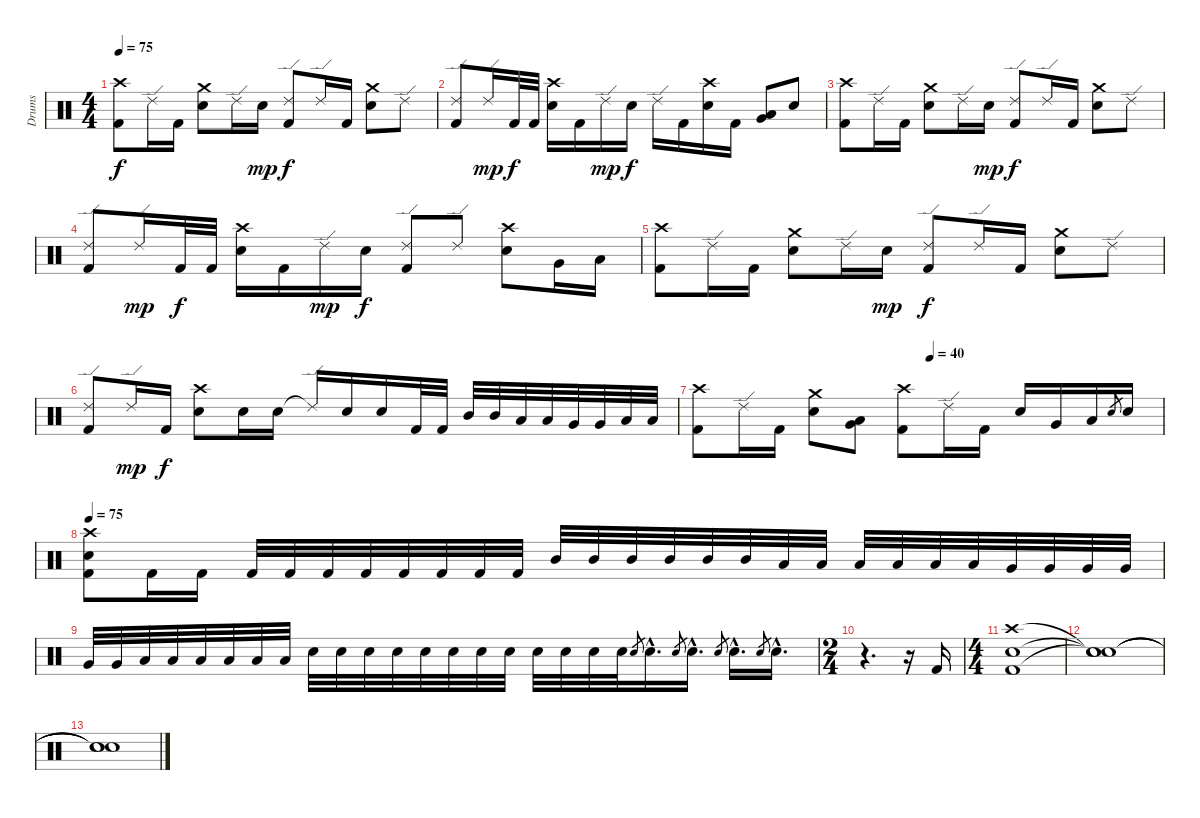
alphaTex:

\track ("Drums" "Drums") {instrument percussion}
\staff {score}
\articulation defaults
\ts (4 4)
\tempo 75
\clef neutral
\ks c
("Crash high (hit)" "Kick (hit) 2").8{dy f} "Ride (edge) 2".16 "Kick (hit) 2".16 ("Crash medium (hit)" "Electric Snare (hit)").8 "Ride (edge) 2".16 "Electric Snare (hit)"{tr (40 32)}.16{dy mp} ("Ride (edge) 2" "Kick (hit) 2").8{dy f} "Ride (edge) 2".16 "Kick (hit) 2".16 ("Crash medium (hit)" "Electric Snare (hit)").8 "Ride (edge) 2".8 |
("Ride (edge) 2" "Kick (hit) 2").8 "Ride (edge) 2".16{dy mp} "Kick (hit) 2".32{dy f} "Kick (hit) 2".32 ("Crash high (hit)" "Electric Snare (hit)").16 "Kick (hit) 2".16 "Ride (edge) 2".16{dy mp} "Electric Snare (hit)".16{dy f} "Ride (edge) 2".16 "Kick (hit) 2".16 ("Crash high (hit)" "Electric Snare (hit)").16 "Kick (hit) 2".16 ("Low Tom (hit)" "Very Low Tom (hit)").8 "Electric Snare (hit)".8 |
("Crash high (hit)" "Kick (hit) 2").8 "Ride (edge) 2".16 "Kick (hit) 2".16 ("Crash medium (hit)" "Electric Snare (hit)").8 "Ride (edge) 2".16 "Electric Snare (hit)"{tr (40 32)}.16{dy mp} ("Ride (edge) 2" "Kick (hit) 2").8{dy f} "Ride (edge) 2".16 "Kick (hit) 2".16 ("Crash medium (hit)" "Electric Snare (hit)").8 "Ride (edge) 2".8 |
("Ride (edge) 2" "Kick (hit) 2").8 "Ride (edge) 2".16{dy mp} "Kick (hit) 2".32{dy f} "Kick (hit) 2".32 ("Crash high (hit)" "Electric Snare (hit)").16 "Kick (hit) 2".16 "Ride (edge) 2".16{dy mp} "Electric Snare (hit)".16{dy f} ("Ride (edge) 2" "Kick (hit) 2").8 "Ride (edge) 2".8 ("Crash high (hit)" "Electric Snare (hit)").8 "Very Low Tom (hit)".16 "Low Floor Tom (hit)".16 |
("Crash high (hit)" "Kick (hit) 2").8 "Ride (edge) 2".16 "Kick (hit) 2".16 ("Crash medium (hit)" "Electric Snare (hit)").8 "Ride (edge) 2".16 "Electric Snare (hit)"{tr (40 32)}.16{dy mp} ("Ride (edge) 2" "Kick (hit) 2").8{dy f} "Ride (edge) 2".16 "Kick (hit) 2".16 ("Crash medium (hit)" "Electric Snare (hit)").8 "Ride (edge) 2".8 |
("Ride (edge) 2" "Kick (hit) 2").8 "Ride (edge) 2".16{dy mp} "Kick (hit) 2".16{dy f} ("Crash high (hit)" "Electric Snare (hit)").8 "Electric Snare (hit)".16 "Electric Snare (hit)".16 "Ride (edge) 2"{t}.16 "Electric Snare (hit)".16 "Electric Snare (hit)".16 "Kick (hit) 2".32 "Kick (hit) 2".32 "Mid Tom (hit)".32 "Mid Tom (hit)".32 "Low Tom (hit)".32 "Low Tom (hit)".32 "Very Low Tom (hit)".32 "Very Low Tom (hit)".32 "Low Floor Tom (hit)".32 "Low Floor Tom (hit)".32 |
\tempo (40 0.5)
("Crash high (hit)" "Kick (hit) 2").8 "Ride (edge) 2".16 "Kick (hit) 2".16 ("Crash medium (hit)" "Electric Snare (hit)").8 ("Very Low Tom (hit)" "Low Tom (hit)").8 ("Crash high (hit)" "Kick (hit) 2").8 "Ride (edge) 2".16 "Kick (hit) 2".16 "Electric Snare (hit)".16 "Very Low Tom (hit)".16 "Low Floor Tom (hit)".16 "Electric Snare (hit)".8{gr} "Electric Snare (hit)".16 |
\tempo 75
("Crash high (hit)" "Electric Snare (hit)" "Kick (hit) 2").8 "Kick (hit) 2".16 "Kick (hit) 2".16 "Kick (hit) 2".32 "Kick (hit) 2".32 "Kick (hit) 2".32 "Kick (hit) 2".32 "Kick (hit) 2".32 "Kick (hit) 2".32 "Kick (hit) 2".32 "Kick (hit) 2".32 "Mid Tom (hit)".32 "Mid Tom (hit)".32 "Mid Tom (hit)".32 "Mid Tom (hit)".32 "Mid Tom (hit)".32 "Mid Tom (hit)".32 "Low Tom (hit)".32 "Low Tom (hit)".32 "Low Tom (hit)".32 "Low Tom (hit)".32 "Low Tom (hit)".32 "Low Tom (hit)".32 "Very Low Tom (hit)".32 "Very Low Tom (hit)".32 "Very Low Tom (hit)".32 "Very Low Tom (hit)".32 |
"Very Low Tom (hit)".32 "Very Low Tom (hit)".32 "Low Floor Tom (hit)".32 "Low Floor Tom (hit)".32 "Low Floor Tom (hit)".32 "Low Floor Tom (hit)".32 "Low Floor Tom (hit)".32 "Low Floor Tom (hit)".32 "Electric Snare (hit)".32 "Electric Snare (hit)".32 "Electric Snare (hit)".32 "Electric Snare (hit)".32 "Electric Snare (hit)".32 "Electric Snare (hit)".32 "Electric Snare (hit)".32 "Electric Snare (hit)".32 "Electric Snare (hit)".32 "Electric Snare (hit)".32 "Electric Snare (hit)".32 "Electric Snare (hit)".32 "Electric Snare (hit)".8{gr} "Electric Snare (hit)"{hac}.16{d} "Electric Snare (hit)".8{gr} "Electric Snare (hit)"{hac}.16{d} "Electric Snare (hit)".8{gr} "Electric Snare (hit)"{hac}.16{d} "Electric Snare (hit)".8{gr} "Electric Snare (hit)"{hac}.16{d} |
\ts (2 4)
r.4{d} r.16 "Kick (hit) 2".16 |
\ts (4 4)
("Crash high (hit)" "Electric Snare (hit)" "Kick (hit) 2").1 |
("Snare (hit)"{t} "Snare (hit)"{t} "Snare (hit)"{t}).1 |
("Snare (hit)"{t} "Snare (hit)"{t} "Snare (hit)"{t}).1
